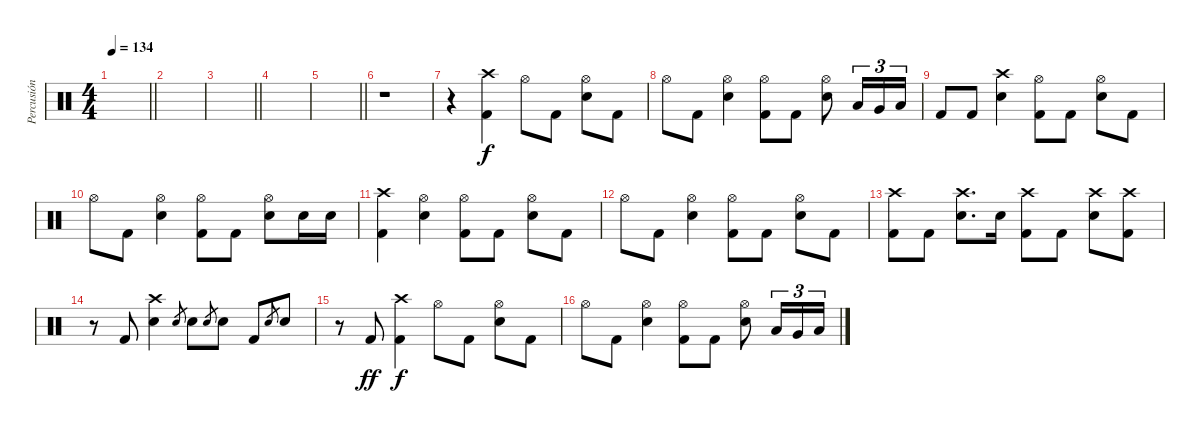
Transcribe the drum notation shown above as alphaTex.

\track ("Percusión" "Percusión") {instrument percussion}
\staff {score}
\articulation defaults
\ts (4 4)
\tempo 134
\clef neutral
\barLineRight lightlight
\ks c
|
|
\barLineRight lightlight
|
|
\barLineRight lightlight
|
r.1 |
r.4 ("Crash high (hit)" "Kick (hit) 2").4{dy f} "Hi-Hat (open)".8 "Kick (hit) 2".8 ("Hi-Hat (open)" "Electric Snare (hit)").8 "Kick (hit) 2".8 |
"Hi-Hat (open)".8 "Kick (hit) 2".8 ("Hi-Hat (open)" "Electric Snare (hit)").4 ("Hi-Hat (open)" "Kick (hit) 2").8 "Kick (hit) 2".8 ("Hi-Hat (open)" "Electric Snare (hit)").8 "Low Tom (hit)".16{tu (3 2)} "Very Low Tom (hit)".16{tu (3 2)} "Low Floor Tom (hit)".16{tu (3 2)} |
"Kick (hit) 2".8 "Kick (hit) 2".8 ("Crash high (hit)" "Electric Snare (hit)").4 ("Hi-Hat (open)" "Kick (hit) 2").8 "Kick (hit) 2".8 ("Hi-Hat (open)" "Electric Snare (hit)").8 "Kick (hit) 2".8 |
"Hi-Hat (open)".8 "Kick (hit) 2".8 ("Hi-Hat (open)" "Electric Snare (hit)").4 ("Hi-Hat (open)" "Kick (hit) 2").8 "Kick (hit) 2".8 ("Hi-Hat (open)" "Electric Snare (hit)").8 "Electric Snare (hit)".16 "Electric Snare (hit)".16 |
("Crash high (hit)" "Kick (hit) 2").4 ("Hi-Hat (open)" "Electric Snare (hit)").4 ("Hi-Hat (open)" "Kick (hit) 2").8 "Kick (hit) 2".8 ("Hi-Hat (open)" "Electric Snare (hit)").8 "Kick (hit) 2".8 |
"Hi-Hat (open)".8 "Kick (hit) 2".8 ("Hi-Hat (open)" "Electric Snare (hit)").4 ("Hi-Hat (open)" "Kick (hit) 2").8 "Kick (hit) 2".8 ("Hi-Hat (open)" "Electric Snare (hit)").8 "Kick (hit) 2".8 |
("Crash high (hit)" "Kick (hit) 2").8 "Kick (hit) 2".8 ("Crash high (hit)" "Electric Snare (hit)").8{d} "Electric Snare (hit)".16 ("Crash high (hit)" "Kick (hit) 2").8 "Kick (hit) 2".8 ("Crash high (hit)" "Electric Snare (hit)").8 ("Crash high (hit)" "Kick (hit) 2").8 |
r.8 "Kick (hit) 2".8 ("Crash high (hit)" "Electric Snare (hit)").4 "Electric Snare (hit)".8{gr} "Electric Snare (hit)".8 "Electric Snare (hit)".8{gr} "Electric Snare (hit)".8 "Kick (hit) 2".8 "Electric Snare (hit)".8{gr} "Electric Snare (hit)".8 |
r.8 "Kick (hit) 2".8{dy ff} ("Crash high (hit)" "Kick (hit) 2").4{dy f} "Hi-Hat (open)".8 "Kick (hit) 2".8 ("Hi-Hat (open)" "Electric Snare (hit)").8 "Kick (hit) 2".8 |
"Hi-Hat (open)".8 "Kick (hit) 2".8 ("Hi-Hat (open)" "Electric Snare (hit)").4 ("Hi-Hat (open)" "Kick (hit) 2").8 "Kick (hit) 2".8 ("Hi-Hat (open)" "Electric Snare (hit)").8 "Low Tom (hit)".16{tu (3 2)} "Very Low Tom (hit)".16{tu (3 2)} "Low Floor Tom (hit)".16{tu (3 2)}
